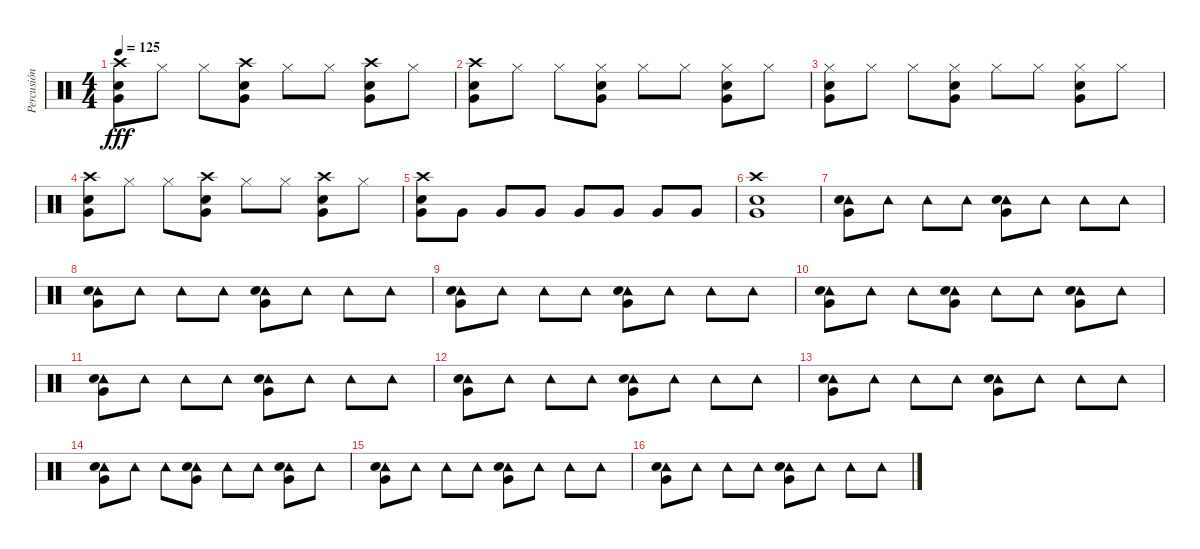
\track ("Percusión" "Percusión") {instrument percussion}
\staff {score}
\articulation defaults
\ts (4 4)
\tempo 125
\clef neutral
\ks c
("Crash high (hit)" "Snare (hit) 2" "Very Low Tom (hit)").8{dy fff} "Hi-Hat (closed)".8 "Hi-Hat (closed)".8 ("Crash high (hit)" "Snare (hit) 2" "Very Low Tom (hit)").8 "Hi-Hat (closed)".8 "Hi-Hat (closed)".8 ("Crash high (hit)" "Snare (hit) 2" "Very Low Tom (hit)").8 "Hi-Hat (closed)".8 |
("Crash high (hit)" "Snare (hit) 2" "Very Low Tom (hit)").8 "Hi-Hat (closed)".8 "Hi-Hat (closed)".8 ("Hi-Hat (closed)" "Snare (hit) 2" "Very Low Tom (hit)").8 "Hi-Hat (closed)".8 "Hi-Hat (closed)".8 ("Hi-Hat (closed)" "Snare (hit) 2" "Very Low Tom (hit)").8 "Hi-Hat (closed)".8 |
("Hi-Hat (closed)" "Snare (hit) 2" "Very Low Tom (hit)").8 "Hi-Hat (closed)".8 "Hi-Hat (closed)".8 ("Hi-Hat (closed)" "Snare (hit) 2" "Very Low Tom (hit)").8 "Hi-Hat (closed)".8 "Hi-Hat (closed)".8 ("Hi-Hat (closed)" "Snare (hit) 2" "Very Low Tom (hit)").8 "Hi-Hat (closed)".8 |
("Crash high (hit)" "Snare (hit) 2" "Very Low Tom (hit)").8 "Hi-Hat (closed)".8 "Hi-Hat (closed)".8 ("Crash high (hit)" "Snare (hit) 2" "Very Low Tom (hit)").8 "Hi-Hat (closed)".8 "Hi-Hat (closed)".8 ("Crash high (hit)" "Snare (hit) 2" "Very Low Tom (hit)").8 "Hi-Hat (closed)".8 |
("Crash high (hit)" "Snare (hit) 2" "Very Low Tom (hit)").8 "Very Low Tom (hit)".8 "Very Low Tom (hit)".8 "Very Low Tom (hit)".8 "Very Low Tom (hit)".8 "Very Low Tom (hit)".8 "Very Low Tom (hit)".8 "Very Low Tom (hit)".8 |
("Crash high (hit)" "Snare (hit) 2" "Very Low Tom (hit)").1 |
("Tambourine (hit)" "Snare (hit) 2" "Very Low Tom (hit)").8 "Tambourine (hit)".8 "Tambourine (hit)".8 "Tambourine (hit)".8 ("Tambourine (hit)" "Snare (hit) 2" "Very Low Tom (hit)").8 "Tambourine (hit)".8 "Tambourine (hit)".8 "Tambourine (hit)".8 |
("Tambourine (hit)" "Snare (hit) 2" "Very Low Tom (hit)").8 "Tambourine (hit)".8 "Tambourine (hit)".8 "Tambourine (hit)".8 ("Tambourine (hit)" "Snare (hit) 2" "Very Low Tom (hit)").8 "Tambourine (hit)".8 "Tambourine (hit)".8 "Tambourine (hit)".8 |
("Tambourine (hit)" "Snare (hit) 2" "Very Low Tom (hit)").8 "Tambourine (hit)".8 "Tambourine (hit)".8 "Tambourine (hit)".8 ("Tambourine (hit)" "Snare (hit) 2" "Very Low Tom (hit)").8 "Tambourine (hit)".8 "Tambourine (hit)".8 "Tambourine (hit)".8 |
("Tambourine (hit)" "Snare (hit) 2" "Very Low Tom (hit)").8 "Tambourine (hit)".8 "Tambourine (hit)".8 ("Tambourine (hit)" "Snare (hit) 2" "Very Low Tom (hit)").8 "Tambourine (hit)".8 "Tambourine (hit)".8 ("Tambourine (hit)" "Snare (hit) 2" "Very Low Tom (hit)").8 "Tambourine (hit)".8 |
("Tambourine (hit)" "Snare (hit) 2" "Very Low Tom (hit)").8 "Tambourine (hit)".8 "Tambourine (hit)".8 "Tambourine (hit)".8 ("Tambourine (hit)" "Snare (hit) 2" "Very Low Tom (hit)").8 "Tambourine (hit)".8 "Tambourine (hit)".8 "Tambourine (hit)".8 |
("Tambourine (hit)" "Snare (hit) 2" "Very Low Tom (hit)").8 "Tambourine (hit)".8 "Tambourine (hit)".8 "Tambourine (hit)".8 ("Tambourine (hit)" "Snare (hit) 2" "Very Low Tom (hit)").8 "Tambourine (hit)".8 "Tambourine (hit)".8 "Tambourine (hit)".8 |
("Tambourine (hit)" "Snare (hit) 2" "Very Low Tom (hit)").8 "Tambourine (hit)".8 "Tambourine (hit)".8 "Tambourine (hit)".8 ("Tambourine (hit)" "Snare (hit) 2" "Very Low Tom (hit)").8 "Tambourine (hit)".8 "Tambourine (hit)".8 "Tambourine (hit)".8 |
("Tambourine (hit)" "Snare (hit) 2" "Very Low Tom (hit)").8 "Tambourine (hit)".8 "Tambourine (hit)".8 ("Tambourine (hit)" "Snare (hit) 2" "Very Low Tom (hit)").8 "Tambourine (hit)".8 "Tambourine (hit)".8 ("Tambourine (hit)" "Snare (hit) 2" "Very Low Tom (hit)").8 "Tambourine (hit)".8 |
("Tambourine (hit)" "Snare (hit) 2" "Very Low Tom (hit)").8 "Tambourine (hit)".8 "Tambourine (hit)".8 "Tambourine (hit)".8 ("Tambourine (hit)" "Snare (hit) 2" "Very Low Tom (hit)").8 "Tambourine (hit)".8 "Tambourine (hit)".8 "Tambourine (hit)".8 |
("Tambourine (hit)" "Snare (hit) 2" "Very Low Tom (hit)").8 "Tambourine (hit)".8 "Tambourine (hit)".8 "Tambourine (hit)".8 ("Tambourine (hit)" "Snare (hit) 2" "Very Low Tom (hit)").8 "Tambourine (hit)".8 "Tambourine (hit)".8 "Tambourine (hit)".8
